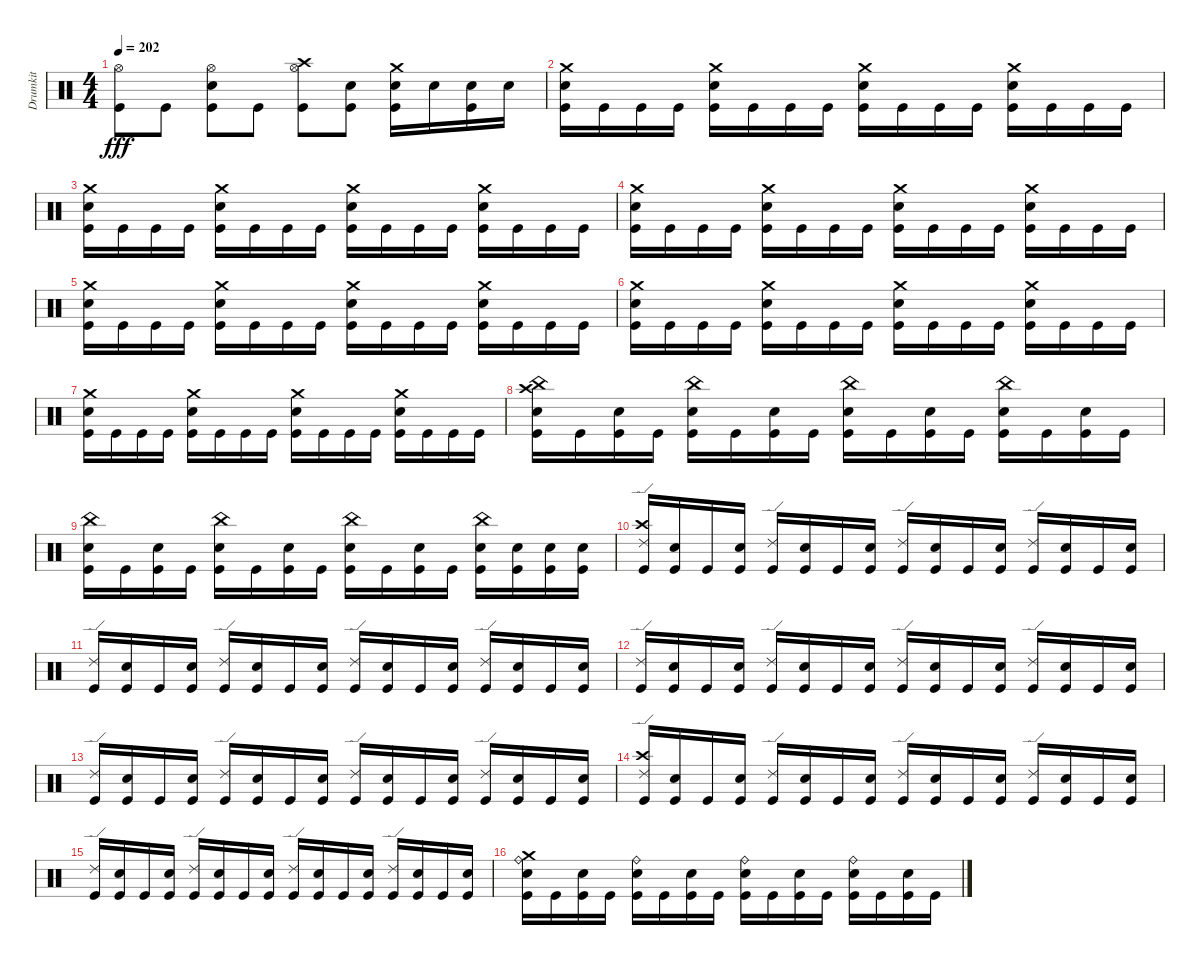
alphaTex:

\track ("Drumkit" "Drumkit") {instrument percussion}
\staff {score}
\articulation defaults
\ts (4 4)
\tempo 202
\clef neutral
\ks c
("Hi-Hat (open)" "Kick (hit)").8{dy fff} "Kick (hit)".8 ("Snare (hit) 2" "Hi-Hat (open)" "Kick (hit)").8 "Kick (hit)".8 ("Crash high (hit)" "Hi-Hat (open)" "Kick (hit)").8 ("Snare (hit) 2" "Kick (hit)").8 ("Snare (hit) 2" "Crash medium (hit)" "Kick (hit)").16 "Snare (hit) 2".16 ("Snare (hit) 2" "Kick (hit)").16 "Snare (hit) 2".16 |
("Crash medium (hit)" "Snare (hit) 2" "Kick (hit)").16 "Kick (hit)".16 "Kick (hit)".16 "Kick (hit)".16 ("Crash medium (hit)" "Snare (hit) 2" "Kick (hit)").16 "Kick (hit)".16 "Kick (hit)".16 "Kick (hit)".16 ("Crash medium (hit)" "Snare (hit) 2" "Kick (hit)").16 "Kick (hit)".16 "Kick (hit)".16 "Kick (hit)".16 ("Crash medium (hit)" "Snare (hit) 2" "Kick (hit)").16 "Kick (hit)".16 "Kick (hit)".16 "Kick (hit)".16 |
("Crash medium (hit)" "Snare (hit) 2" "Kick (hit)").16 "Kick (hit)".16 "Kick (hit)".16 "Kick (hit)".16 ("Crash medium (hit)" "Snare (hit) 2" "Kick (hit)").16 "Kick (hit)".16 "Kick (hit)".16 "Kick (hit)".16 ("Crash medium (hit)" "Snare (hit) 2" "Kick (hit)").16 "Kick (hit)".16 "Kick (hit)".16 "Kick (hit)".16 ("Crash medium (hit)" "Snare (hit) 2" "Kick (hit)").16 "Kick (hit)".16 "Kick (hit)".16 "Kick (hit)".16 |
("Crash medium (hit)" "Snare (hit) 2" "Kick (hit)").16 "Kick (hit)".16 "Kick (hit)".16 "Kick (hit)".16 ("Crash medium (hit)" "Snare (hit) 2" "Kick (hit)").16 "Kick (hit)".16 "Kick (hit)".16 "Kick (hit)".16 ("Crash medium (hit)" "Snare (hit) 2" "Kick (hit)").16 "Kick (hit)".16 "Kick (hit)".16 "Kick (hit)".16 ("Crash medium (hit)" "Snare (hit) 2" "Kick (hit)").16 "Kick (hit)".16 "Kick (hit)".16 "Kick (hit)".16 |
("Crash medium (hit)" "Snare (hit) 2" "Kick (hit)").16 "Kick (hit)".16 "Kick (hit)".16 "Kick (hit)".16 ("Crash medium (hit)" "Snare (hit) 2" "Kick (hit)").16 "Kick (hit)".16 "Kick (hit)".16 "Kick (hit)".16 ("Crash medium (hit)" "Snare (hit) 2" "Kick (hit)").16 "Kick (hit)".16 "Kick (hit)".16 "Kick (hit)".16 ("Crash medium (hit)" "Snare (hit) 2" "Kick (hit)").16 "Kick (hit)".16 "Kick (hit)".16 "Kick (hit)".16 |
("Crash medium (hit)" "Snare (hit) 2" "Kick (hit)").16 "Kick (hit)".16 "Kick (hit)".16 "Kick (hit)".16 ("Crash medium (hit)" "Snare (hit) 2" "Kick (hit)").16 "Kick (hit)".16 "Kick (hit)".16 "Kick (hit)".16 ("Crash medium (hit)" "Snare (hit) 2" "Kick (hit)").16 "Kick (hit)".16 "Kick (hit)".16 "Kick (hit)".16 ("Crash medium (hit)" "Snare (hit) 2" "Kick (hit)").16 "Kick (hit)".16 "Kick (hit)".16 "Kick (hit)".16 |
("Crash medium (hit)" "Snare (hit) 2" "Kick (hit)").16 "Kick (hit)".16 "Kick (hit)".16 "Kick (hit)".16 ("Crash medium (hit)" "Snare (hit) 2" "Kick (hit)").16 "Kick (hit)".16 "Kick (hit)".16 "Kick (hit)".16 ("Crash medium (hit)" "Snare (hit) 2" "Kick (hit)").16 "Kick (hit)".16 "Kick (hit)".16 "Kick (hit)".16 ("Crash medium (hit)" "Snare (hit) 2" "Kick (hit)").16 "Kick (hit)".16 "Kick (hit)".16 "Kick (hit)".16 |
("China (hit)" "Crash high (hit)" "Snare (hit) 2" "Kick (hit)").16 "Kick (hit)".16 ("Snare (hit) 2" "Kick (hit)").16 "Kick (hit)".16 ("China (hit)" "Snare (hit) 2" "Kick (hit)").16 "Kick (hit)".16 ("Snare (hit) 2" "Kick (hit)").16 "Kick (hit)".16 ("China (hit)" "Snare (hit) 2" "Kick (hit)").16 "Kick (hit)".16 ("Snare (hit) 2" "Kick (hit)").16 "Kick (hit)".16 ("China (hit)" "Snare (hit) 2" "Kick (hit)").16 "Kick (hit)".16 ("Snare (hit) 2" "Kick (hit)").16 "Kick (hit)".16 |
("China (hit)" "Snare (hit) 2" "Kick (hit)").16 "Kick (hit)".16 ("Snare (hit) 2" "Kick (hit)").16 "Kick (hit)".16 ("China (hit)" "Snare (hit) 2" "Kick (hit)").16 "Kick (hit)".16 ("Snare (hit) 2" "Kick (hit)").16 "Kick (hit)".16 ("China (hit)" "Snare (hit) 2" "Kick (hit)").16 "Kick (hit)".16 ("Snare (hit) 2" "Kick (hit)").16 "Kick (hit)".16 ("China (hit)" "Snare (hit) 2" "Kick (hit)").16 ("Snare (hit) 2" "Kick (hit)").16 ("Snare (hit) 2" "Kick (hit)").16 ("Snare (hit) 2" "Kick (hit)").16 |
("Crash high (hit)" "Ride (edge) 2" "Kick (hit)").16 ("Snare (hit) 2" "Kick (hit)").16 "Kick (hit)".16 ("Snare (hit) 2" "Kick (hit)").16 ("Ride (edge) 2" "Kick (hit)").16 ("Snare (hit) 2" "Kick (hit)").16 "Kick (hit)".16 ("Snare (hit) 2" "Kick (hit)").16 ("Ride (edge) 2" "Kick (hit)").16 ("Snare (hit) 2" "Kick (hit)").16 "Kick (hit)".16 ("Snare (hit) 2" "Kick (hit)").16 ("Ride (edge) 2" "Kick (hit)").16 ("Snare (hit) 2" "Kick (hit)").16 "Kick (hit)".16 ("Snare (hit) 2" "Kick (hit)").16 |
("Ride (edge) 2" "Kick (hit)").16 ("Snare (hit) 2" "Kick (hit)").16 "Kick (hit)".16 ("Snare (hit) 2" "Kick (hit)").16 ("Ride (edge) 2" "Kick (hit)").16 ("Snare (hit) 2" "Kick (hit)").16 "Kick (hit)".16 ("Snare (hit) 2" "Kick (hit)").16 ("Ride (edge) 2" "Kick (hit)").16 ("Snare (hit) 2" "Kick (hit)").16 "Kick (hit)".16 ("Snare (hit) 2" "Kick (hit)").16 ("Ride (edge) 2" "Kick (hit)").16 ("Snare (hit) 2" "Kick (hit)").16 "Kick (hit)".16 ("Snare (hit) 2" "Kick (hit)").16 |
("Ride (edge) 2" "Kick (hit)").16 ("Snare (hit) 2" "Kick (hit)").16 "Kick (hit)".16 ("Snare (hit) 2" "Kick (hit)").16 ("Ride (edge) 2" "Kick (hit)").16 ("Snare (hit) 2" "Kick (hit)").16 "Kick (hit)".16 ("Snare (hit) 2" "Kick (hit)").16 ("Ride (edge) 2" "Kick (hit)").16 ("Snare (hit) 2" "Kick (hit)").16 "Kick (hit)".16 ("Snare (hit) 2" "Kick (hit)").16 ("Ride (edge) 2" "Kick (hit)").16 ("Snare (hit) 2" "Kick (hit)").16 "Kick (hit)".16 ("Snare (hit) 2" "Kick (hit)").16 |
("Ride (edge) 2" "Kick (hit)").16 ("Snare (hit) 2" "Kick (hit)").16 "Kick (hit)".16 ("Snare (hit) 2" "Kick (hit)").16 ("Ride (edge) 2" "Kick (hit)").16 ("Snare (hit) 2" "Kick (hit)").16 "Kick (hit)".16 ("Snare (hit) 2" "Kick (hit)").16 ("Ride (edge) 2" "Kick (hit)").16 ("Snare (hit) 2" "Kick (hit)").16 "Kick (hit)".16 ("Snare (hit) 2" "Kick (hit)").16 ("Ride (edge) 2" "Kick (hit)").16 ("Snare (hit) 2" "Kick (hit)").16 "Kick (hit)".16 ("Snare (hit) 2" "Kick (hit)").16 |
("Ride (edge) 2" "Crash high (hit)" "Kick (hit)").16 ("Snare (hit) 2" "Kick (hit)").16 "Kick (hit)".16 ("Snare (hit) 2" "Kick (hit)").16 ("Ride (edge) 2" "Kick (hit)").16 ("Snare (hit) 2" "Kick (hit)").16 "Kick (hit)".16 ("Snare (hit) 2" "Kick (hit)").16 ("Ride (edge) 2" "Kick (hit)").16 ("Snare (hit) 2" "Kick (hit)").16 "Kick (hit)".16 ("Snare (hit) 2" "Kick (hit)").16 ("Ride (edge) 2" "Kick (hit)").16 ("Snare (hit) 2" "Kick (hit)").16 "Kick (hit)".16 ("Snare (hit) 2" "Kick (hit)").16 |
("Ride (edge) 2" "Kick (hit)").16 ("Snare (hit) 2" "Kick (hit)").16 "Kick (hit)".16 ("Snare (hit) 2" "Kick (hit)").16 ("Ride (edge) 2" "Kick (hit)").16 ("Snare (hit) 2" "Kick (hit)").16 "Kick (hit)".16 ("Snare (hit) 2" "Kick (hit)").16 ("Ride (edge) 2" "Kick (hit)").16 ("Snare (hit) 2" "Kick (hit)").16 "Kick (hit)".16 ("Snare (hit) 2" "Kick (hit)").16 ("Ride (edge) 2" "Kick (hit)").16 ("Snare (hit) 2" "Kick (hit)").16 "Kick (hit)".16 ("Snare (hit) 2" "Kick (hit)").16 |
("Ride (bell)" "Snare (hit) 2" "Crash medium (hit)" "Kick (hit)").16 "Kick (hit)".16 ("Snare (hit) 2" "Kick (hit)").16 "Kick (hit)".16 ("Ride (bell)" "Snare (hit) 2" "Kick (hit)").16 "Kick (hit)".16 ("Snare (hit) 2" "Kick (hit)").16 "Kick (hit)".16 ("Ride (bell)" "Snare (hit) 2" "Kick (hit)").16 "Kick (hit)".16 ("Snare (hit) 2" "Kick (hit)").16 "Kick (hit)".16 ("Ride (bell)" "Snare (hit) 2" "Kick (hit)").16 "Kick (hit)".16 ("Snare (hit) 2" "Kick (hit)").16 "Kick (hit)".16
